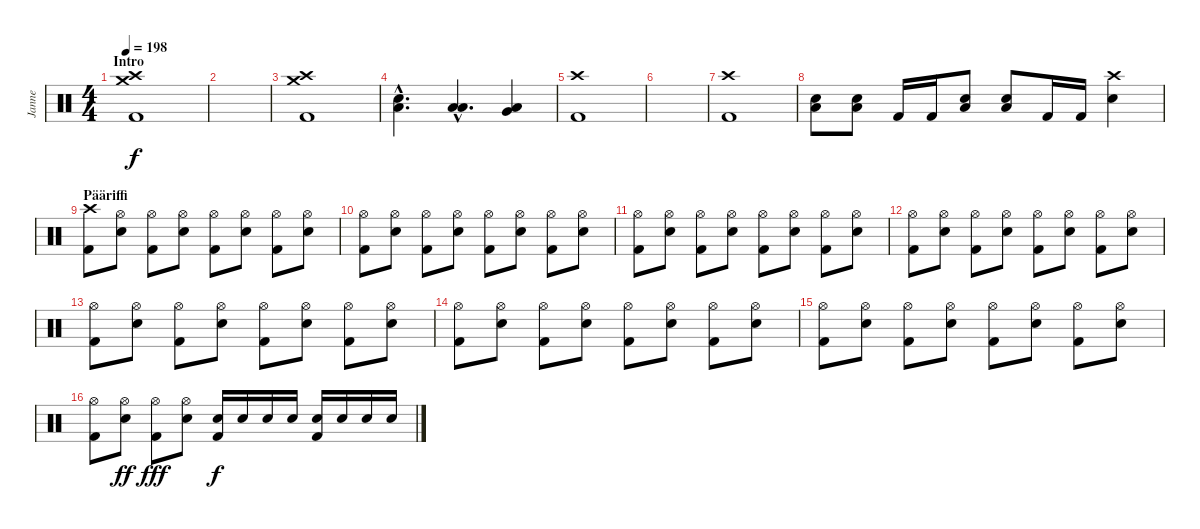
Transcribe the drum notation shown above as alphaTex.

\track ("Janne" "Janne") {instrument percussion}
\staff {score}
\articulation defaults
\ts (4 4)
\section ("" "Intro")
\tempo 198
\clef neutral
\ks c
("Crash high (hit)" "Crash medium (hit)" "Kick (hit) 2").1{dy f} |
|
("Crash high (hit)" "Crash medium (hit)" "Kick (hit) 2").1 |
("Electric Snare (hit)"{hac} "Low Floor Tom (hit)"{hac}).4{d} ("Low Tom (hit)"{hac} "Low Floor Tom (hit)"{hac}).4{d} ("Very Low Tom (hit)" "Low Floor Tom (hit)").4 |
("Crash high (hit)" "Kick (hit) 2").1 |
|
("Crash high (hit)" "Kick (hit) 2").1 |
("Electric Snare (hit)" "Low Floor Tom (hit)").8 ("Electric Snare (hit)" "Low Floor Tom (hit)").8 "Kick (hit) 2".16 "Kick (hit) 2".16 ("Electric Snare (hit)" "Low Floor Tom (hit)").8 ("Electric Snare (hit)" "Low Floor Tom (hit)").8 "Kick (hit) 2".16 "Kick (hit) 2".16 ("Crash high (hit)" "Electric Snare (hit)").4 |
\section ("" "Pääriffi")
("Crash high (hit)" "Kick (hit) 2").8 ("Hi-Hat (open)" "Electric Snare (hit)").8 ("Hi-Hat (open)" "Kick (hit) 2").8 ("Hi-Hat (open)" "Electric Snare (hit)").8 ("Hi-Hat (open)" "Kick (hit) 2").8 ("Hi-Hat (open)" "Electric Snare (hit)").8 ("Hi-Hat (open)" "Kick (hit) 2").8 ("Hi-Hat (open)" "Electric Snare (hit)").8 |
("Hi-Hat (open)" "Kick (hit) 2").8 ("Hi-Hat (open)" "Electric Snare (hit)").8 ("Hi-Hat (open)" "Kick (hit) 2").8 ("Hi-Hat (open)" "Electric Snare (hit)").8 ("Hi-Hat (open)" "Kick (hit) 2").8 ("Hi-Hat (open)" "Electric Snare (hit)").8 ("Hi-Hat (open)" "Kick (hit) 2").8 ("Hi-Hat (open)" "Electric Snare (hit)").8 |
("Hi-Hat (open)" "Kick (hit) 2").8 ("Hi-Hat (open)" "Electric Snare (hit)").8 ("Hi-Hat (open)" "Kick (hit) 2").8 ("Hi-Hat (open)" "Electric Snare (hit)").8 ("Hi-Hat (open)" "Kick (hit) 2").8 ("Hi-Hat (open)" "Electric Snare (hit)").8 ("Hi-Hat (open)" "Kick (hit) 2").8 ("Hi-Hat (open)" "Electric Snare (hit)").8 |
("Hi-Hat (open)" "Kick (hit) 2").8 ("Hi-Hat (open)" "Electric Snare (hit)").8 ("Hi-Hat (open)" "Kick (hit) 2").8 ("Hi-Hat (open)" "Electric Snare (hit)").8 ("Hi-Hat (open)" "Kick (hit) 2").8 ("Hi-Hat (open)" "Electric Snare (hit)").8 ("Hi-Hat (open)" "Kick (hit) 2").8 ("Hi-Hat (open)" "Electric Snare (hit)").8 |
("Hi-Hat (open)" "Kick (hit) 2").8 ("Hi-Hat (open)" "Electric Snare (hit)").8 ("Hi-Hat (open)" "Kick (hit) 2").8 ("Hi-Hat (open)" "Electric Snare (hit)").8 ("Hi-Hat (open)" "Kick (hit) 2").8 ("Hi-Hat (open)" "Electric Snare (hit)").8 ("Hi-Hat (open)" "Kick (hit) 2").8 ("Hi-Hat (open)" "Electric Snare (hit)").8 |
("Hi-Hat (open)" "Kick (hit) 2").8 ("Hi-Hat (open)" "Electric Snare (hit)").8 ("Hi-Hat (open)" "Kick (hit) 2").8 ("Hi-Hat (open)" "Electric Snare (hit)").8 ("Hi-Hat (open)" "Kick (hit) 2").8 ("Hi-Hat (open)" "Electric Snare (hit)").8 ("Hi-Hat (open)" "Kick (hit) 2").8 ("Hi-Hat (open)" "Electric Snare (hit)").8 |
("Hi-Hat (open)" "Kick (hit) 2").8 ("Hi-Hat (open)" "Electric Snare (hit)").8 ("Hi-Hat (open)" "Kick (hit) 2").8 ("Hi-Hat (open)" "Electric Snare (hit)").8 ("Hi-Hat (open)" "Kick (hit) 2").8 ("Hi-Hat (open)" "Electric Snare (hit)").8 ("Hi-Hat (open)" "Kick (hit) 2").8 ("Hi-Hat (open)" "Electric Snare (hit)").8 |
("Hi-Hat (open)" "Kick (hit) 2").8 ("Hi-Hat (open)" "Electric Snare (hit)").8{dy ff} ("Hi-Hat (open)" "Kick (hit) 2").8{dy fff} ("Hi-Hat (open)" "Electric Snare (hit)").8 ("Electric Snare (hit)" "Kick (hit) 2").16{dy f} "Electric Snare (hit)".16 "Electric Snare (hit)".16 "Electric Snare (hit)".16 ("Electric Snare (hit)" "Kick (hit) 2").16 "Electric Snare (hit)".16 "Electric Snare (hit)".16 "Electric Snare (hit)".16
